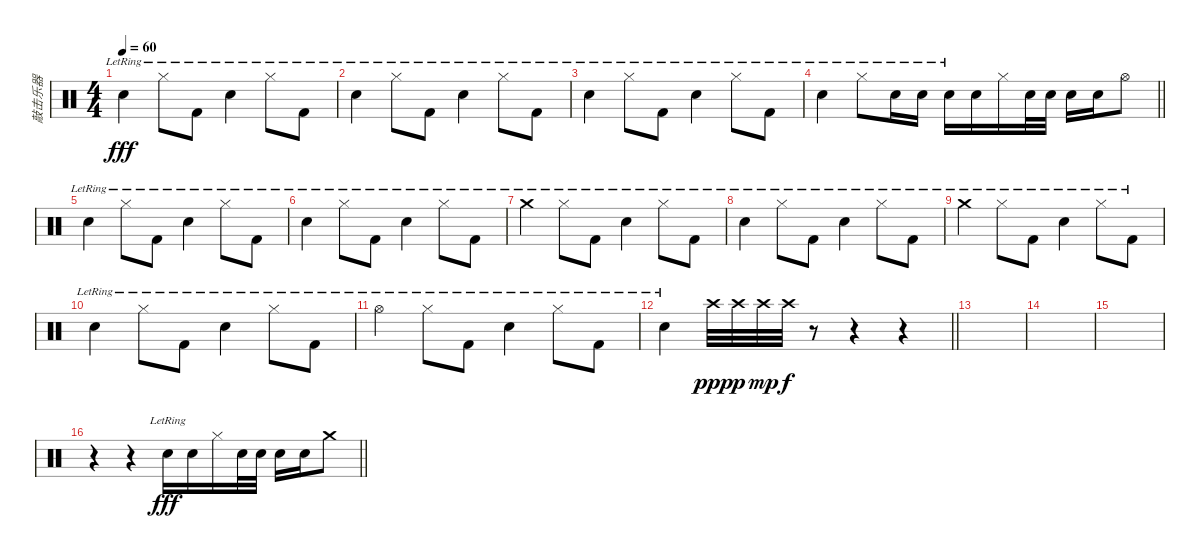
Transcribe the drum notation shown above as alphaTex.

\track ("敲击乐器" "敲击乐器") {instrument percussion}
\staff {score}
\articulation defaults
\ts (4 4)
\tempo 60
\clef neutral
\ks c "Snare (hit) 2"{lr}.4{dy fff} "Hi-Hat (closed)"{lr}.8 "Kick (hit) 2"{lr}.8 "Snare (hit) 2"{lr}.4 "Hi-Hat (closed)"{lr}.8 "Kick (hit) 2"{lr}.8
|
"Snare (hit) 2"{lr}.4 "Hi-Hat (closed)"{lr}.8 "Kick (hit) 2"{lr}.8 "Snare (hit) 2"{lr}.4 "Hi-Hat (closed)"{lr}.8 "Kick (hit) 2"{lr}.8 |
"Snare (hit) 2"{lr}.4 "Hi-Hat (closed)"{lr}.8 "Kick (hit) 2"{lr}.8 "Snare (hit) 2"{lr}.4 "Hi-Hat (closed)"{lr}.8 "Kick (hit) 2"{lr}.8 |
\barLineRight lightlight "Snare (hit) 2"{lr}.4 "Hi-Hat (closed)"{lr}.8 "Snare (hit) 2"{lr}.16 "Snare (hit) 2"{lr}.16 "Snare (hit) 2"{lr}.16 "Snare (hit) 2".16 "Hi-Hat (closed)".16 "Electric Snare (hit)".32 "Electric Snare (hit)".32 "Electric Snare (hit)".16 "Electric Snare (hit)".16 "Hi-Hat (open)".8
|
"Snare (hit) 2"{lr}.4 "Hi-Hat (closed)"{lr}.8 "Kick (hit) 2"{lr}.8 "Snare (hit) 2"{lr}.4 "Hi-Hat (closed)"{lr}.8 "Kick (hit) 2"{lr}.8 |
"Snare (hit) 2"{lr}.4 "Hi-Hat (closed)"{lr}.8 "Kick (hit) 2"{lr}.8 "Snare (hit) 2"{lr}.4 "Hi-Hat (closed)"{lr}.8 "Kick (hit) 2"{lr}.8 |
"Crash medium (hit)"{lr}.4 "Hi-Hat (closed)"{lr}.8 "Kick (hit) 2"{lr}.8 "Snare (hit) 2"{lr}.4 "Hi-Hat (closed)"{lr}.8 "Kick (hit) 2"{lr}.8 |
"Snare (hit) 2"{lr}.4 "Hi-Hat (closed)"{lr}.8 "Kick (hit) 2"{lr}.8 "Snare (hit) 2"{lr}.4 "Hi-Hat (closed)"{lr}.8 "Kick (hit) 2"{lr}.8 |
"Crash medium (hit)"{lr}.4 "Hi-Hat (closed)"{lr}.8 "Kick (hit) 2"{lr}.8 "Snare (hit) 2"{lr}.4 "Hi-Hat (closed)"{lr}.8 "Kick (hit) 2"{lr}.8 |
"Snare (hit) 2"{lr}.4 "Hi-Hat (closed)"{lr}.8 "Kick (hit) 2"{lr}.8 "Snare (hit) 2"{lr}.4 "Hi-Hat (closed)"{lr}.8 "Kick (hit) 2"{lr}.8 |
"Hi-Hat (open)"{lr}.4 "Hi-Hat (closed)"{lr}.8 "Kick (hit) 2"{lr}.8 "Snare (hit) 2"{lr}.4 "Hi-Hat (closed)"{lr}.8 "Kick (hit) 2"{lr}.8 |
\barLineRight lightlight "Snare (hit) 2"{lr}.4 "Crash high (hit)".32{dy ppp} "Crash high (hit)".32{dy p} "Crash high (hit)".32{dy mp} "Crash high (hit)".32{dy f}
r.8 r.4 r.4 |
|
|
|
\barLineRight lightlight
r.4 r.4 "Snare (hit) 2"{lr}.16{dy fff} "Snare (hit) 2".16 "Hi-Hat (closed)".16 "Electric Snare (hit)".32 "Electric Snare (hit)".32 "Electric Snare (hit)".16 "Electric Snare (hit)".16 "Crash medium (hit)".8
